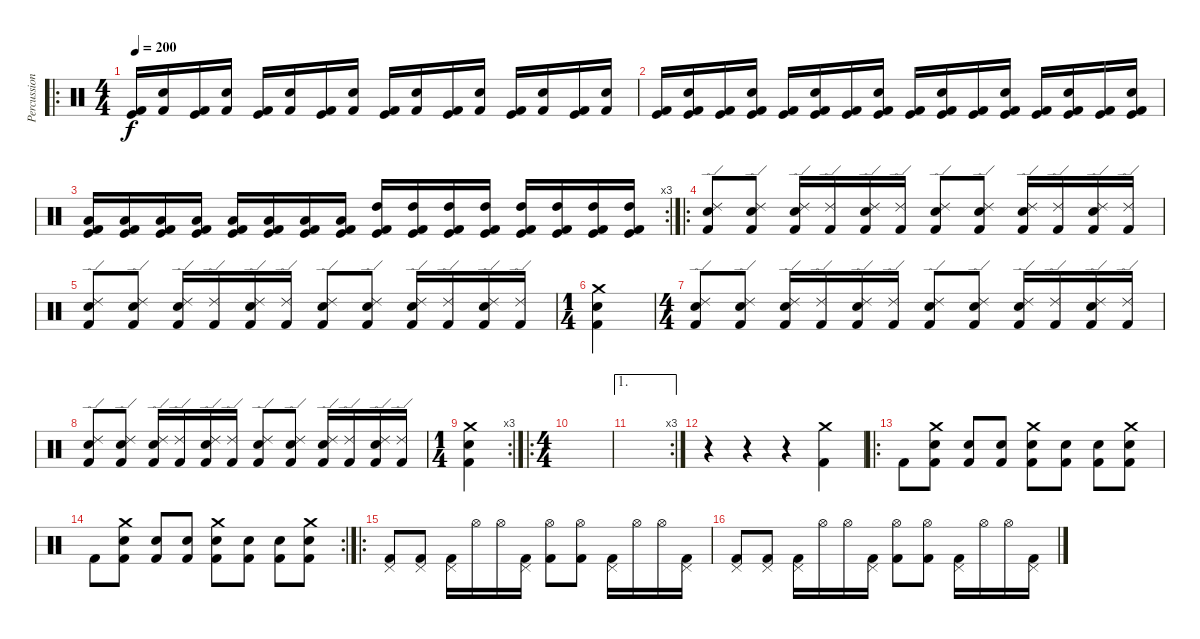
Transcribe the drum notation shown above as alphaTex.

\track ("Percussion" "Percussion") {instrument percussion}
\staff {score}
\articulation defaults
\ro
\ts (4 4)
\tempo 200
\clef neutral
\ks c
("Kick (hit)" "Kick (hit) 2").16{dy f} ("Electric Snare (hit)" "Kick (hit) 2").16 ("Kick (hit)" "Kick (hit) 2").16 ("Electric Snare (hit)" "Kick (hit) 2").16 ("Kick (hit)" "Kick (hit) 2").16 ("Electric Snare (hit)" "Kick (hit) 2").16 ("Kick (hit)" "Kick (hit) 2").16 ("Electric Snare (hit)" "Kick (hit) 2").16 ("Kick (hit)" "Kick (hit) 2").16 ("Electric Snare (hit)" "Kick (hit) 2").16 ("Kick (hit)" "Kick (hit) 2").16 ("Electric Snare (hit)" "Kick (hit) 2").16 ("Kick (hit)" "Kick (hit) 2").16 ("Electric Snare (hit)" "Kick (hit) 2").16 ("Kick (hit)" "Kick (hit) 2").16 ("Electric Snare (hit)" "Kick (hit) 2").16 |
("Kick (hit)" "Kick (hit) 2").16 ("Electric Snare (hit)" "Kick (hit)" "Kick (hit) 2").16 ("Kick (hit)" "Kick (hit) 2").16 ("Electric Snare (hit)" "Kick (hit)" "Kick (hit) 2").16 ("Kick (hit)" "Kick (hit) 2").16 ("Electric Snare (hit)" "Kick (hit)" "Kick (hit) 2").16 ("Kick (hit)" "Kick (hit) 2").16 ("Electric Snare (hit)" "Kick (hit)" "Kick (hit) 2").16 ("Kick (hit)" "Kick (hit) 2").16 ("Electric Snare (hit)" "Kick (hit)" "Kick (hit) 2").16 ("Kick (hit)" "Kick (hit) 2").16 ("Electric Snare (hit)" "Kick (hit)" "Kick (hit) 2").16 ("Kick (hit)" "Kick (hit) 2").16 ("Electric Snare (hit)" "Kick (hit)" "Kick (hit) 2").16 ("Kick (hit)" "Kick (hit) 2").16 ("Electric Snare (hit)" "Kick (hit)" "Kick (hit) 2").16 |
\rc 3
("Low Tom (hit)" "Kick (hit)" "Kick (hit) 2").16 ("Low Tom (hit)" "Kick (hit)" "Kick (hit) 2").16 ("Low Tom (hit)" "Kick (hit)" "Kick (hit) 2").16 ("Low Tom (hit)" "Kick (hit)" "Kick (hit) 2").16 ("Low Tom (hit)" "Kick (hit)" "Kick (hit) 2").16 ("Low Tom (hit)" "Kick (hit)" "Kick (hit) 2").16 ("Low Tom (hit)" "Kick (hit)" "Kick (hit) 2").16 ("Low Tom (hit)" "Kick (hit)" "Kick (hit) 2").16 ("High Tom (hit)" "Kick (hit)" "Kick (hit) 2").16 ("High Tom (hit)" "Kick (hit)" "Kick (hit) 2").16 ("High Tom (hit)" "Kick (hit)" "Kick (hit) 2").16 ("High Tom (hit)" "Kick (hit)" "Kick (hit) 2").16 ("High Tom (hit)" "Kick (hit)" "Kick (hit) 2").16 ("High Tom (hit)" "Kick (hit)" "Kick (hit) 2").16 ("High Tom (hit)" "Kick (hit)" "Kick (hit) 2").16 ("High Tom (hit)" "Kick (hit)" "Kick (hit) 2").16 |
\ro
("Ride (edge) 2" "Electric Snare (hit)" "Kick (hit) 2").8 ("Ride (edge) 2" "Electric Snare (hit)" "Kick (hit) 2").8 ("Ride (edge) 2" "Electric Snare (hit)" "Kick (hit) 2").16 ("Ride (edge) 2" "Kick (hit) 2").16 ("Ride (edge) 2" "Electric Snare (hit)" "Kick (hit) 2").16 ("Ride (edge) 2" "Kick (hit) 2").16 ("Ride (edge) 2" "Electric Snare (hit)" "Kick (hit) 2").8 ("Ride (edge) 2" "Electric Snare (hit)" "Kick (hit) 2").8 ("Ride (edge) 2" "Electric Snare (hit)" "Kick (hit) 2").16 ("Ride (edge) 2" "Kick (hit) 2").16 ("Ride (edge) 2" "Electric Snare (hit)" "Kick (hit) 2").16 ("Ride (edge) 2" "Kick (hit) 2").16 |
("Ride (edge) 2" "Electric Snare (hit)" "Kick (hit) 2").8 ("Ride (edge) 2" "Electric Snare (hit)" "Kick (hit) 2").8 ("Ride (edge) 2" "Electric Snare (hit)" "Kick (hit) 2").16 ("Ride (edge) 2" "Kick (hit) 2").16 ("Ride (edge) 2" "Electric Snare (hit)" "Kick (hit) 2").16 ("Ride (edge) 2" "Kick (hit) 2").16 ("Ride (edge) 2" "Electric Snare (hit)" "Kick (hit) 2").8 ("Ride (edge) 2" "Electric Snare (hit)" "Kick (hit) 2").8 ("Ride (edge) 2" "Electric Snare (hit)" "Kick (hit) 2").16 ("Ride (edge) 2" "Kick (hit) 2").16 ("Ride (edge) 2" "Electric Snare (hit)" "Kick (hit) 2").16 ("Ride (edge) 2" "Kick (hit) 2").16 |
\ts (1 4)
("Crash medium (hit)" "Electric Snare (hit)" "Kick (hit) 2").4 |
\ts (4 4)
("Ride (edge) 2" "Electric Snare (hit)" "Kick (hit) 2").8 ("Ride (edge) 2" "Electric Snare (hit)" "Kick (hit) 2").8 ("Ride (edge) 2" "Electric Snare (hit)" "Kick (hit) 2").16 ("Ride (edge) 2" "Kick (hit) 2").16 ("Ride (edge) 2" "Electric Snare (hit)" "Kick (hit) 2").16 ("Ride (edge) 2" "Kick (hit) 2").16 ("Ride (edge) 2" "Electric Snare (hit)" "Kick (hit) 2").8 ("Ride (edge) 2" "Electric Snare (hit)" "Kick (hit) 2").8 ("Ride (edge) 2" "Electric Snare (hit)" "Kick (hit) 2").16 ("Ride (edge) 2" "Kick (hit) 2").16 ("Ride (edge) 2" "Electric Snare (hit)" "Kick (hit) 2").16 ("Ride (edge) 2" "Kick (hit) 2").16 |
("Ride (edge) 2" "Electric Snare (hit)" "Kick (hit) 2").8 ("Ride (edge) 2" "Electric Snare (hit)" "Kick (hit) 2").8 ("Ride (edge) 2" "Electric Snare (hit)" "Kick (hit) 2").16 ("Ride (edge) 2" "Kick (hit) 2").16 ("Ride (edge) 2" "Electric Snare (hit)" "Kick (hit) 2").16 ("Ride (edge) 2" "Kick (hit) 2").16 ("Ride (edge) 2" "Electric Snare (hit)" "Kick (hit) 2").8 ("Ride (edge) 2" "Electric Snare (hit)" "Kick (hit) 2").8 ("Ride (edge) 2" "Electric Snare (hit)" "Kick (hit) 2").16 ("Ride (edge) 2" "Kick (hit) 2").16 ("Ride (edge) 2" "Electric Snare (hit)" "Kick (hit) 2").16 ("Ride (edge) 2" "Kick (hit) 2").16 |
\rc 3
\ts (1 4)
("Crash medium (hit)" "Electric Snare (hit)" "Kick (hit) 2").4 |
\ro
\ts (4 4)
|
\ae 1
\rc 3
|
r.4 r.4 r.4 ("Crash medium (hit)" "Kick (hit) 2").4 |
\ro "Kick (hit) 2".8
("Crash medium (hit)" "Electric Snare (hit)" "Kick (hit) 2").8 ("Electric Snare (hit)" "Kick (hit) 2").8 ("Electric Snare (hit)" "Kick (hit) 2").8 ("Crash medium (hit)" "Electric Snare (hit)" "Kick (hit) 2").8 ("Electric Snare (hit)" "Kick (hit) 2").8 ("Electric Snare (hit)" "Kick (hit) 2").8 ("Crash medium (hit)" "Electric Snare (hit)" "Kick (hit) 2").8 |
\rc 2 "Kick (hit) 2".8
("Crash medium (hit)" "Electric Snare (hit)" "Kick (hit) 2").8 ("Electric Snare (hit)" "Kick (hit) 2").8 ("Electric Snare (hit)" "Kick (hit) 2").8 ("Crash medium (hit)" "Electric Snare (hit)" "Kick (hit) 2").8 ("Electric Snare (hit)" "Kick (hit) 2").8 ("Electric Snare (hit)" "Kick (hit) 2").8 ("Crash medium (hit)" "Electric Snare (hit)" "Kick (hit) 2").8 |
\ro
("Pedal Hi-Hat (hit)" "Kick (hit) 2").8 ("Pedal Hi-Hat (hit)" "Kick (hit) 2").8 ("Pedal Hi-Hat (hit)" "Kick (hit) 2").16 "Hi-Hat (open)".16 "Hi-Hat (open)".16 ("Pedal Hi-Hat (hit)" "Kick (hit) 2").16 ("Hi-Hat (open)" "Kick (hit) 2").8 ("Hi-Hat (open)" "Kick (hit) 2").8 ("Pedal Hi-Hat (hit)" "Kick (hit) 2").16 "Hi-Hat (open)".16 "Hi-Hat (open)".16 ("Pedal Hi-Hat (hit)" "Kick (hit) 2").16 |
("Pedal Hi-Hat (hit)" "Kick (hit) 2").8 ("Pedal Hi-Hat (hit)" "Kick (hit) 2").8 ("Pedal Hi-Hat (hit)" "Kick (hit) 2").16 "Hi-Hat (open)".16 "Hi-Hat (open)".16 ("Pedal Hi-Hat (hit)" "Kick (hit) 2").16 ("Hi-Hat (open)" "Kick (hit) 2").8 ("Hi-Hat (open)" "Kick (hit) 2").8 ("Pedal Hi-Hat (hit)" "Kick (hit) 2").16 "Hi-Hat (open)".16 "Hi-Hat (open)".16 ("Pedal Hi-Hat (hit)" "Kick (hit) 2").16
